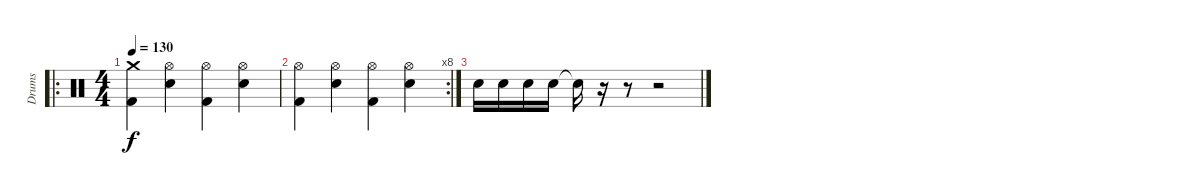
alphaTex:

\track ("Drums" "Drums") {instrument percussion}
\staff {score}
\articulation defaults
\ro
\ts (4 4)
\tempo 130
\clef neutral
\ks c
("Crash medium (hit)" "Kick (hit) 2").4{dy f} ("Hi-Hat (open)" "Electric Snare (hit)").4 ("Hi-Hat (open)" "Kick (hit) 2").4 ("Hi-Hat (open)" "Electric Snare (hit)").4 |
\rc 8
("Hi-Hat (open)" "Kick (hit) 2").4 ("Hi-Hat (open)" "Electric Snare (hit)").4 ("Hi-Hat (open)" "Kick (hit) 2").4 ("Hi-Hat (open)" "Electric Snare (hit)").4 |
"Electric Snare (hit)".16 "Electric Snare (hit)".16 "Electric Snare (hit)".16 "Electric Snare (hit)".16 "Snare (hit)"{t}.16 r.16 r.8 r.2
